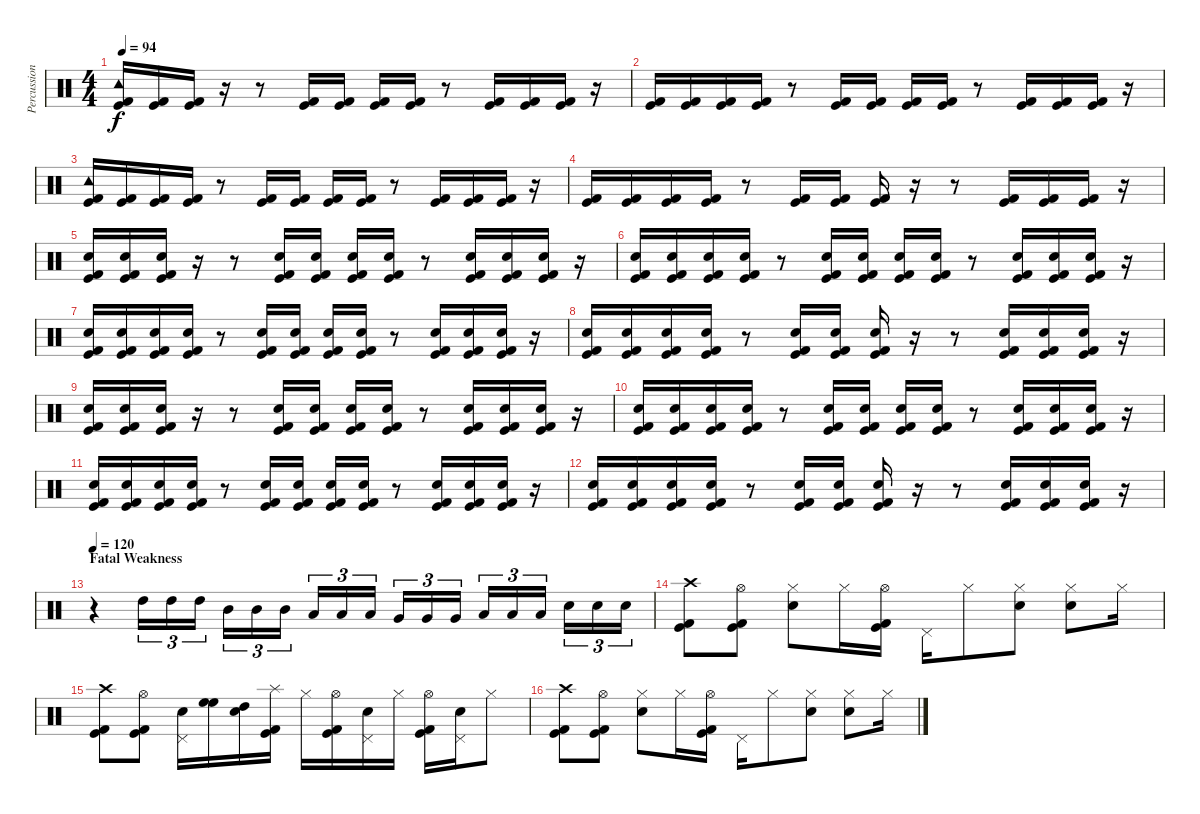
\track ("Percussion" "Percussion") {instrument percussion}
\staff {score}
\articulation defaults
\ts (4 4)
\tempo 94
\clef neutral
\ks c
("Tambourine (hit)" "Kick (hit) 2" "Kick (hit)").16{dy f} ("Kick (hit) 2" "Kick (hit)").16 ("Kick (hit) 2" "Kick (hit)").16 r.16 r.8 ("Kick (hit) 2" "Kick (hit)").16 ("Kick (hit) 2" "Kick (hit)").16 ("Kick (hit) 2" "Kick (hit)").16 ("Kick (hit) 2" "Kick (hit)").16 r.8 ("Kick (hit) 2" "Kick (hit)").16 ("Kick (hit) 2" "Kick (hit)").16 ("Kick (hit) 2" "Kick (hit)").16 r.16 |
("Kick (hit) 2" "Kick (hit)").16 ("Kick (hit) 2" "Kick (hit)").16 ("Kick (hit) 2" "Kick (hit)").16 ("Kick (hit) 2" "Kick (hit)").16 r.8 ("Kick (hit) 2" "Kick (hit)").16 ("Kick (hit) 2" "Kick (hit)").16 ("Kick (hit) 2" "Kick (hit)").16 ("Kick (hit) 2" "Kick (hit)").16 r.8 ("Kick (hit) 2" "Kick (hit)").16 ("Kick (hit) 2" "Kick (hit)").16 ("Kick (hit) 2" "Kick (hit)").16 r.16 |
("Tambourine (hit)" "Kick (hit) 2" "Kick (hit)").16 ("Kick (hit) 2" "Kick (hit)").16 ("Kick (hit) 2" "Kick (hit)").16 ("Kick (hit) 2" "Kick (hit)").16 r.8 ("Kick (hit) 2" "Kick (hit)").16 ("Kick (hit) 2" "Kick (hit)").16 ("Kick (hit) 2" "Kick (hit)").16 ("Kick (hit) 2" "Kick (hit)").16 r.8 ("Kick (hit) 2" "Kick (hit)").16 ("Kick (hit) 2" "Kick (hit)").16 ("Kick (hit) 2" "Kick (hit)").16 r.16 |
("Kick (hit) 2" "Kick (hit)").16 ("Kick (hit) 2" "Kick (hit)").16 ("Kick (hit) 2" "Kick (hit)").16 ("Kick (hit) 2" "Kick (hit)").16 r.8 ("Kick (hit) 2" "Kick (hit)").16 ("Kick (hit) 2" "Kick (hit)").16 ("Kick (hit) 2" "Kick (hit)").16 r.16 r.8 ("Kick (hit) 2" "Kick (hit)").16 ("Kick (hit) 2" "Kick (hit)").16 ("Kick (hit) 2" "Kick (hit)").16 r.16 |
("Snare (hit) 2" "Kick (hit) 2" "Kick (hit)").16 ("Snare (hit) 2" "Kick (hit) 2" "Kick (hit)").16 ("Snare (hit) 2" "Kick (hit) 2" "Kick (hit)").16 r.16 r.8 ("Snare (hit) 2" "Kick (hit) 2" "Kick (hit)").16 ("Snare (hit) 2" "Kick (hit) 2" "Kick (hit)").16 ("Snare (hit) 2" "Kick (hit) 2" "Kick (hit)").16 ("Snare (hit) 2" "Kick (hit) 2" "Kick (hit)").16 r.8 ("Snare (hit) 2" "Kick (hit) 2" "Kick (hit)").16 ("Snare (hit) 2" "Kick (hit) 2" "Kick (hit)").16 ("Snare (hit) 2" "Kick (hit) 2" "Kick (hit)").16 r.16 |
("Snare (hit) 2" "Kick (hit) 2" "Kick (hit)").16 ("Snare (hit) 2" "Kick (hit) 2" "Kick (hit)").16 ("Snare (hit) 2" "Kick (hit) 2" "Kick (hit)").16 ("Snare (hit) 2" "Kick (hit) 2" "Kick (hit)").16 r.8 ("Snare (hit) 2" "Kick (hit) 2" "Kick (hit)").16 ("Snare (hit) 2" "Kick (hit) 2" "Kick (hit)").16 ("Snare (hit) 2" "Kick (hit) 2" "Kick (hit)").16 ("Snare (hit) 2" "Kick (hit) 2" "Kick (hit)").16 r.8 ("Snare (hit) 2" "Kick (hit) 2" "Kick (hit)").16 ("Snare (hit) 2" "Kick (hit) 2" "Kick (hit)").16 ("Snare (hit) 2" "Kick (hit) 2" "Kick (hit)").16 r.16 |
("Snare (hit) 2" "Kick (hit) 2" "Kick (hit)").16 ("Snare (hit) 2" "Kick (hit) 2" "Kick (hit)").16 ("Snare (hit) 2" "Kick (hit) 2" "Kick (hit)").16 ("Snare (hit) 2" "Kick (hit) 2" "Kick (hit)").16 r.8 ("Snare (hit) 2" "Kick (hit) 2" "Kick (hit)").16 ("Snare (hit) 2" "Kick (hit) 2" "Kick (hit)").16 ("Snare (hit) 2" "Kick (hit) 2" "Kick (hit)").16 ("Snare (hit) 2" "Kick (hit) 2" "Kick (hit)").16 r.8 ("Snare (hit) 2" "Kick (hit) 2" "Kick (hit)").16 ("Snare (hit) 2" "Kick (hit) 2" "Kick (hit)").16 ("Snare (hit) 2" "Kick (hit) 2" "Kick (hit)").16 r.16 |
("Snare (hit) 2" "Kick (hit) 2" "Kick (hit)").16 ("Snare (hit) 2" "Kick (hit) 2" "Kick (hit)").16 ("Snare (hit) 2" "Kick (hit) 2" "Kick (hit)").16 ("Snare (hit) 2" "Kick (hit) 2" "Kick (hit)").16 r.8 ("Snare (hit) 2" "Kick (hit) 2" "Kick (hit)").16 ("Snare (hit) 2" "Kick (hit) 2" "Kick (hit)").16 ("Snare (hit) 2" "Kick (hit) 2" "Kick (hit)").16 r.16 r.8 ("Snare (hit) 2" "Kick (hit) 2" "Kick (hit)").16 ("Snare (hit) 2" "Kick (hit) 2" "Kick (hit)").16 ("Snare (hit) 2" "Kick (hit) 2" "Kick (hit)").16 r.16 |
("Snare (hit) 2" "Kick (hit) 2" "Kick (hit)").16 ("Snare (hit) 2" "Kick (hit) 2" "Kick (hit)").16 ("Snare (hit) 2" "Kick (hit) 2" "Kick (hit)").16 r.16 r.8 ("Snare (hit) 2" "Kick (hit) 2" "Kick (hit)").16 ("Snare (hit) 2" "Kick (hit) 2" "Kick (hit)").16 ("Snare (hit) 2" "Kick (hit) 2" "Kick (hit)").16 ("Snare (hit) 2" "Kick (hit) 2" "Kick (hit)").16 r.8 ("Snare (hit) 2" "Kick (hit) 2" "Kick (hit)").16 ("Snare (hit) 2" "Kick (hit) 2" "Kick (hit)").16 ("Snare (hit) 2" "Kick (hit) 2" "Kick (hit)").16 r.16 |
("Snare (hit) 2" "Kick (hit) 2" "Kick (hit)").16 ("Snare (hit) 2" "Kick (hit) 2" "Kick (hit)").16 ("Snare (hit) 2" "Kick (hit) 2" "Kick (hit)").16 ("Snare (hit) 2" "Kick (hit) 2" "Kick (hit)").16 r.8 ("Snare (hit) 2" "Kick (hit) 2" "Kick (hit)").16 ("Snare (hit) 2" "Kick (hit) 2" "Kick (hit)").16 ("Snare (hit) 2" "Kick (hit) 2" "Kick (hit)").16 ("Snare (hit) 2" "Kick (hit) 2" "Kick (hit)").16 r.8 ("Snare (hit) 2" "Kick (hit) 2" "Kick (hit)").16 ("Snare (hit) 2" "Kick (hit) 2" "Kick (hit)").16 ("Snare (hit) 2" "Kick (hit) 2" "Kick (hit)").16 r.16 |
("Snare (hit) 2" "Kick (hit) 2" "Kick (hit)").16 ("Snare (hit) 2" "Kick (hit) 2" "Kick (hit)").16 ("Snare (hit) 2" "Kick (hit) 2" "Kick (hit)").16 ("Snare (hit) 2" "Kick (hit) 2" "Kick (hit)").16 r.8 ("Snare (hit) 2" "Kick (hit) 2" "Kick (hit)").16 ("Snare (hit) 2" "Kick (hit) 2" "Kick (hit)").16 ("Snare (hit) 2" "Kick (hit) 2" "Kick (hit)").16 ("Snare (hit) 2" "Kick (hit) 2" "Kick (hit)").16 r.8 ("Snare (hit) 2" "Kick (hit) 2" "Kick (hit)").16 ("Snare (hit) 2" "Kick (hit) 2" "Kick (hit)").16 ("Snare (hit) 2" "Kick (hit) 2" "Kick (hit)").16 r.16 |
("Snare (hit) 2" "Kick (hit) 2" "Kick (hit)").16 ("Snare (hit) 2" "Kick (hit) 2" "Kick (hit)").16 ("Snare (hit) 2" "Kick (hit) 2" "Kick (hit)").16 ("Snare (hit) 2" "Kick (hit) 2" "Kick (hit)").16 r.8 ("Snare (hit) 2" "Kick (hit) 2" "Kick (hit)").16 ("Snare (hit) 2" "Kick (hit) 2" "Kick (hit)").16 ("Snare (hit) 2" "Kick (hit) 2" "Kick (hit)").16 r.16 r.8 ("Snare (hit) 2" "Kick (hit) 2" "Kick (hit)").16 ("Snare (hit) 2" "Kick (hit) 2" "Kick (hit)").16 ("Snare (hit) 2" "Kick (hit) 2" "Kick (hit)").16 r.16 |
\section ("" "Fatal Weakness")
\tempo 120
r.4 "High Tom (hit)".16{tu (3 2)} "High Tom (hit)".16{tu (3 2)} "High Tom (hit)".16{tu (3 2)} "Mid Tom (hit)".16{tu (3 2)} "Mid Tom (hit)".16{tu (3 2)} "Mid Tom (hit)".16{tu (3 2)} "Low Tom (hit)".16{tu (3 2)} "Low Tom (hit)".16{tu (3 2)} "Low Tom (hit)".16{tu (3 2)} "Very Low Tom (hit)".16{tu (3 2)} "Very Low Tom (hit)".16{tu (3 2)} "Very Low Tom (hit)".16{tu (3 2)} "Low Floor Tom (hit)".16{tu (3 2)} "Low Floor Tom (hit)".16{tu (3 2)} "Low Floor Tom (hit)".16{tu (3 2)} "Electric Snare (hit)".16{tu (3 2)} "Electric Snare (hit)".16{tu (3 2)} "Electric Snare (hit)".16{tu (3 2)} |
("Crash high (hit)" "Kick (hit) 2" "Kick (hit)").8 ("Hi-Hat (open)" "Kick (hit) 2" "Kick (hit)").8 ("Hi-Hat (closed)" "Snare (hit) 2").8 "Hi-Hat (closed)".16 ("Hi-Hat (open)" "Kick (hit) 2" "Kick (hit)").16 "Pedal Hi-Hat (hit)".16 "Hi-Hat (closed)".8 ("Hi-Hat (closed)" "Snare (hit) 2").8 ("Hi-Hat (closed)" "Snare (hit) 2").8 "Hi-Hat (closed)".16 |
("Crash high (hit)" "Kick (hit) 2" "Kick (hit)").8 ("Hi-Hat (open)" "Kick (hit) 2" "Kick (hit)").8 ("Pedal Hi-Hat (hit)" "Snare (hit) 2").16 ("High Floor Tom (hit)" "High Floor Tom (hit)").16 ("Snare (hit) 2" "High Tom (hit)").16 ("Splash (hit)" "Kick (hit) 2" "Kick (hit)").16 "Hi-Hat (closed)".16 ("Hi-Hat (open)" "Kick (hit) 2" "Kick (hit)").16 ("Pedal Hi-Hat (hit)" "Snare (hit) 2").16 "Hi-Hat (closed)".16 ("Hi-Hat (open)" "Kick (hit) 2" "Kick (hit)").16 ("Pedal Hi-Hat (hit)" "Snare (hit) 2").16 "Hi-Hat (closed)".8 |
("Crash high (hit)" "Kick (hit) 2" "Kick (hit)").8 ("Hi-Hat (open)" "Kick (hit) 2" "Kick (hit)").8 ("Hi-Hat (closed)" "Snare (hit) 2").8 "Hi-Hat (closed)".16 ("Hi-Hat (open)" "Kick (hit) 2" "Kick (hit)").16 "Pedal Hi-Hat (hit)".16 "Hi-Hat (closed)".8 ("Hi-Hat (closed)" "Snare (hit) 2").8 ("Hi-Hat (closed)" "Snare (hit) 2").8 "Hi-Hat (closed)".16
